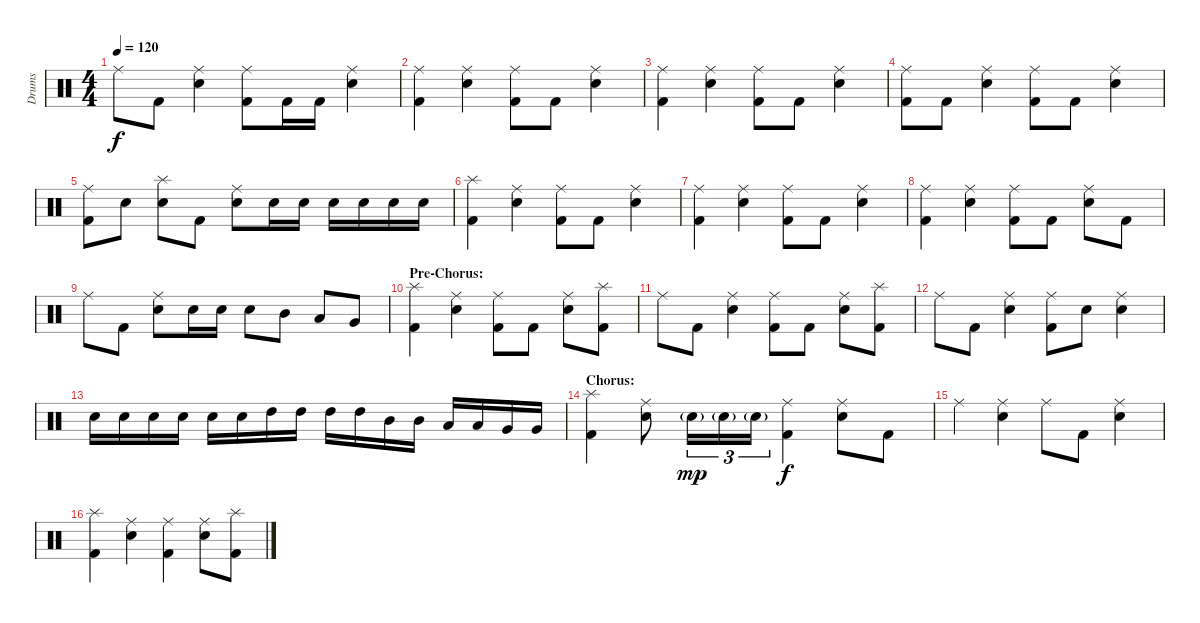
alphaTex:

\track ("Drums" "Drums") {instrument percussion}
\staff {score}
\articulation defaults
\ts (4 4)
\tempo 120
\clef neutral
\ks c "Ride (middle)".8{dy f} "Kick (hit) 2".8
("Ride (middle)" "Electric Snare (hit)").4 ("Ride (middle)" "Kick (hit) 2").8 "Kick (hit) 2".16 "Kick (hit) 2".16 ("Ride (middle)" "Electric Snare (hit)").4 |
("Ride (middle)" "Kick (hit) 2").4 ("Ride (middle)" "Electric Snare (hit)").4 ("Ride (middle)" "Kick (hit) 2").8 "Kick (hit) 2".8 ("Ride (middle)" "Electric Snare (hit)").4 |
("Ride (middle)" "Kick (hit) 2").4 ("Ride (middle)" "Electric Snare (hit)").4 ("Ride (middle)" "Kick (hit) 2").8 "Kick (hit) 2".8 ("Ride (middle)" "Electric Snare (hit)").4 |
("Ride (middle)" "Kick (hit) 2").8 "Kick (hit) 2".8 ("Ride (middle)" "Electric Snare (hit)").4 ("Ride (middle)" "Kick (hit) 2").8 "Kick (hit) 2".8 ("Ride (middle)" "Electric Snare (hit)").4 |
("Ride (middle)" "Kick (hit) 2").8 "Electric Snare (hit)".8 ("Splash (hit)" "Electric Snare (hit)").8 "Kick (hit) 2".8 ("Ride (middle)" "Electric Snare (hit)").8 "Electric Snare (hit)".16 "Electric Snare (hit)".16 "Electric Snare (hit)".16 "Electric Snare (hit)".16 "Electric Snare (hit)".16 "Electric Snare (hit)".16 |
("Splash (hit)" "Kick (hit) 2").4 ("Ride (middle)" "Electric Snare (hit)").4 ("Ride (middle)" "Kick (hit) 2").8 "Kick (hit) 2".8 ("Ride (middle)" "Electric Snare (hit)").4 |
("Ride (middle)" "Kick (hit) 2").4 ("Ride (middle)" "Electric Snare (hit)").4 ("Ride (middle)" "Kick (hit) 2").8 "Kick (hit) 2".8 ("Ride (middle)" "Electric Snare (hit)").4 |
("Ride (middle)" "Kick (hit) 2").4 ("Ride (middle)" "Electric Snare (hit)").4 ("Ride (middle)" "Kick (hit) 2").8 "Kick (hit) 2".8 ("Ride (middle)" "Electric Snare (hit)").8 "Kick (hit) 2".8 |
"Ride (middle)".8 "Kick (hit) 2".8 ("Ride (middle)" "Electric Snare (hit)").8 "Electric Snare (hit)".16 "Electric Snare (hit)".16 "Electric Snare (hit)".8 "Mid Tom (hit)".8 "Low Tom (hit)".8 "Very Low Tom (hit)".8 |
\section ("" "Pre-Chorus:")
("Splash (hit)" "Kick (hit) 2").4 ("Ride (middle)" "Electric Snare (hit)").4 ("Ride (middle)" "Kick (hit) 2").8 "Kick (hit) 2".8 ("Ride (middle)" "Electric Snare (hit)").8 ("Splash (hit)" "Kick (hit) 2").8 |
"Ride (middle)".8 "Kick (hit) 2".8 ("Ride (middle)" "Electric Snare (hit)").4 ("Ride (middle)" "Kick (hit) 2").8 "Kick (hit) 2".8 ("Ride (middle)" "Electric Snare (hit)").8 ("Splash (hit)" "Kick (hit) 2").8 |
"Ride (middle)".8 "Kick (hit) 2".8 ("Ride (middle)" "Electric Snare (hit)").4 ("Ride (middle)" "Kick (hit) 2").8 "Electric Snare (hit)".8 ("Ride (middle)" "Electric Snare (hit)").4 |
"Electric Snare (hit)".16 "Electric Snare (hit)".16 "Electric Snare (hit)".16 "Electric Snare (hit)".16 "Electric Snare (hit)".16 "Electric Snare (hit)".16 "High Tom (hit)".16 "High Tom (hit)".16 "High Tom (hit)".16 "High Tom (hit)".16 "Mid Tom (hit)".16 "Mid Tom (hit)".16 "Low Tom (hit)".16 "Low Tom (hit)".16 "Very Low Tom (hit)".16 "Very Low Tom (hit)".16 |
\section ("" "Chorus:")
("Splash (hit)" "Kick (hit) 2").4 ("Ride (middle)" "Electric Snare (hit)").8 "Electric Snare (hit)"{g}.16{tu (3 2) dy mp} "Electric Snare (hit)"{g}.16{tu (3 2)} "Electric Snare (hit)"{g}.16{tu (3 2)} ("Ride (middle)" "Kick (hit) 2").4{dy f} ("Ride (middle)" "Electric Snare (hit)").8 "Kick (hit) 2".8 |
"Ride (middle)".4 ("Ride (middle)" "Electric Snare (hit)").4 "Ride (middle)".8 "Kick (hit) 2".8 ("Ride (middle)" "Electric Snare (hit)").4 |
("Splash (hit)" "Kick (hit) 2").4 ("Ride (middle)" "Electric Snare (hit)").4 ("Ride (middle)" "Kick (hit) 2").4 ("Ride (middle)" "Electric Snare (hit)").8 ("Splash (hit)" "Kick (hit) 2").8
